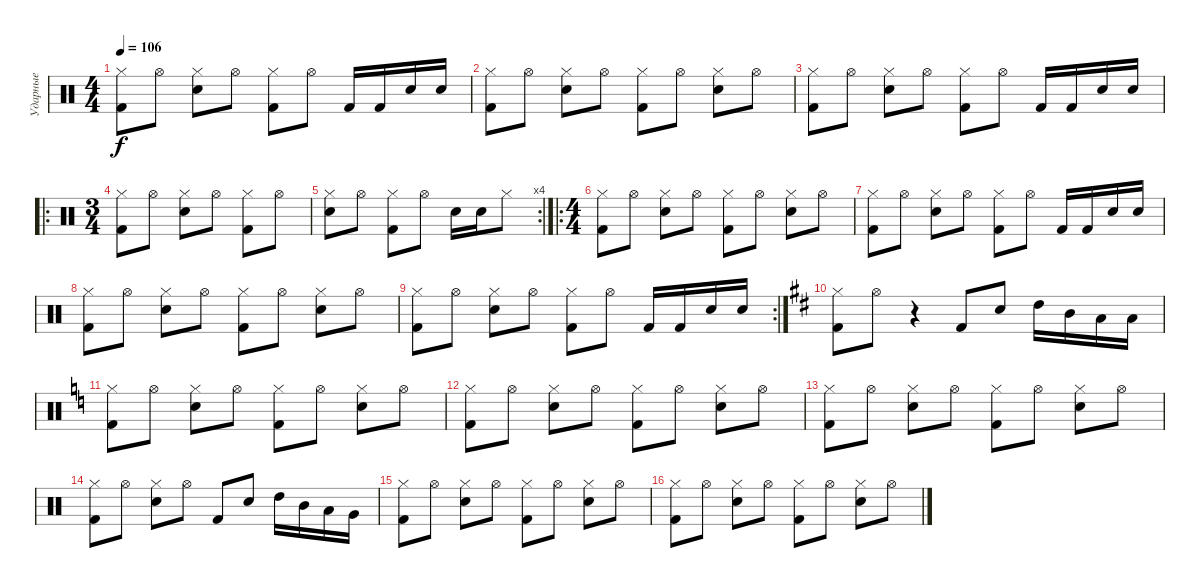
\track ("Ударные" "Ударные") {instrument percussion}
\staff {score}
\articulation defaults
\ts (4 4)
\tempo 106
\clef neutral
\ks c
("Hi-Hat (closed)" "Kick (hit) 2").8{dy f} "Hi-Hat (open)".8 ("Hi-Hat (closed)" "Electric Snare (hit)").8 "Hi-Hat (open)".8 ("Hi-Hat (closed)" "Kick (hit) 2").8 "Hi-Hat (open)".8 "Kick (hit) 2".16 "Kick (hit) 2".16 "Electric Snare (hit)".16 "Electric Snare (hit)".16 |
("Hi-Hat (closed)" "Kick (hit) 2").8 "Hi-Hat (open)".8 ("Hi-Hat (closed)" "Electric Snare (hit)").8 "Hi-Hat (open)".8 ("Hi-Hat (closed)" "Kick (hit) 2").8 "Hi-Hat (open)".8 ("Hi-Hat (closed)" "Electric Snare (hit)").8 "Hi-Hat (open)".8 |
("Hi-Hat (closed)" "Kick (hit) 2").8 "Hi-Hat (open)".8 ("Hi-Hat (closed)" "Electric Snare (hit)").8 "Hi-Hat (open)".8 ("Hi-Hat (closed)" "Kick (hit) 2").8 "Hi-Hat (open)".8 "Kick (hit) 2".16 "Kick (hit) 2".16 "Electric Snare (hit)".16 "Electric Snare (hit)".16 |
\ro
\ts (3 4)
("Hi-Hat (closed)" "Kick (hit) 2").8 "Hi-Hat (open)".8 ("Hi-Hat (closed)" "Electric Snare (hit)").8 "Hi-Hat (open)".8 ("Hi-Hat (closed)" "Kick (hit) 2").8 "Hi-Hat (open)".8 |
\rc 4
("Hi-Hat (closed)" "Electric Snare (hit)").8 "Hi-Hat (open)".8 ("Hi-Hat (closed)" "Kick (hit) 2").8 "Hi-Hat (open)".8 "Electric Snare (hit)".16 "Electric Snare (hit)".16 "Hi-Hat (closed)".8 |
\ro
\ts (4 4)
("Hi-Hat (closed)" "Kick (hit) 2").8 "Hi-Hat (open)".8 ("Hi-Hat (closed)" "Electric Snare (hit)").8 "Hi-Hat (open)".8 ("Hi-Hat (closed)" "Kick (hit) 2").8 "Hi-Hat (open)".8 ("Hi-Hat (closed)" "Electric Snare (hit)").8 "Hi-Hat (open)".8 |
("Hi-Hat (closed)" "Kick (hit) 2").8 "Hi-Hat (open)".8 ("Hi-Hat (closed)" "Electric Snare (hit)").8 "Hi-Hat (open)".8 ("Hi-Hat (closed)" "Kick (hit) 2").8 "Hi-Hat (open)".8 "Kick (hit) 2".16 "Kick (hit) 2".16 "Electric Snare (hit)".16 "Electric Snare (hit)".16 |
("Hi-Hat (closed)" "Kick (hit) 2").8 "Hi-Hat (open)".8 ("Hi-Hat (closed)" "Electric Snare (hit)").8 "Hi-Hat (open)".8 ("Hi-Hat (closed)" "Kick (hit) 2").8 "Hi-Hat (open)".8 ("Hi-Hat (closed)" "Electric Snare (hit)").8 "Hi-Hat (open)".8 |
\rc 2
("Hi-Hat (closed)" "Kick (hit) 2").8 "Hi-Hat (open)".8 ("Hi-Hat (closed)" "Electric Snare (hit)").8 "Hi-Hat (open)".8 ("Hi-Hat (closed)" "Kick (hit) 2").8 "Hi-Hat (open)".8 "Kick (hit) 2".16 "Kick (hit) 2".16 "Electric Snare (hit)".16 "Electric Snare (hit)".16 |
\ks d
("Hi-Hat (closed)" "Kick (hit) 2").8 "Hi-Hat (open)".8 r.4 "Kick (hit) 2".8 "Electric Snare (hit)".8 "High Tom (hit)".16 "Mid Tom (hit)".16 "Low Tom (hit)".16 "Low Tom (hit)".16 |
\ks c
("Hi-Hat (closed)" "Kick (hit) 2").8 "Hi-Hat (open)".8 ("Hi-Hat (closed)" "Electric Snare (hit)").8 "Hi-Hat (open)".8 ("Hi-Hat (closed)" "Kick (hit) 2").8 "Hi-Hat (open)".8 ("Hi-Hat (closed)" "Electric Snare (hit)").8 "Hi-Hat (open)".8 |
("Hi-Hat (closed)" "Kick (hit) 2").8 "Hi-Hat (open)".8 ("Hi-Hat (closed)" "Electric Snare (hit)").8 "Hi-Hat (open)".8 ("Hi-Hat (closed)" "Kick (hit) 2").8 "Hi-Hat (open)".8 ("Hi-Hat (closed)" "Electric Snare (hit)").8 "Hi-Hat (open)".8 |
("Hi-Hat (closed)" "Kick (hit) 2").8 "Hi-Hat (open)".8 ("Hi-Hat (closed)" "Electric Snare (hit)").8 "Hi-Hat (open)".8 ("Hi-Hat (closed)" "Kick (hit) 2").8 "Hi-Hat (open)".8 ("Hi-Hat (closed)" "Electric Snare (hit)").8 "Hi-Hat (open)".8 |
("Hi-Hat (closed)" "Kick (hit) 2").8 "Hi-Hat (open)".8 ("Hi-Hat (closed)" "Electric Snare (hit)").8 "Hi-Hat (open)".8 "Kick (hit) 2".8 "Electric Snare (hit)".8 "High Tom (hit)".16 "Mid Tom (hit)".16 "Low Tom (hit)".16 "Very Low Tom (hit)".16 |
("Hi-Hat (closed)" "Kick (hit) 2").8 "Hi-Hat (open)".8 ("Hi-Hat (closed)" "Electric Snare (hit)").8 "Hi-Hat (open)".8 ("Hi-Hat (closed)" "Kick (hit) 2").8 "Hi-Hat (open)".8 ("Hi-Hat (closed)" "Electric Snare (hit)").8 "Hi-Hat (open)".8 |
("Hi-Hat (closed)" "Kick (hit) 2").8 "Hi-Hat (open)".8 ("Hi-Hat (closed)" "Electric Snare (hit)").8 "Hi-Hat (open)".8 ("Hi-Hat (closed)" "Kick (hit) 2").8 "Hi-Hat (open)".8 ("Hi-Hat (closed)" "Electric Snare (hit)").8 "Hi-Hat (open)".8
